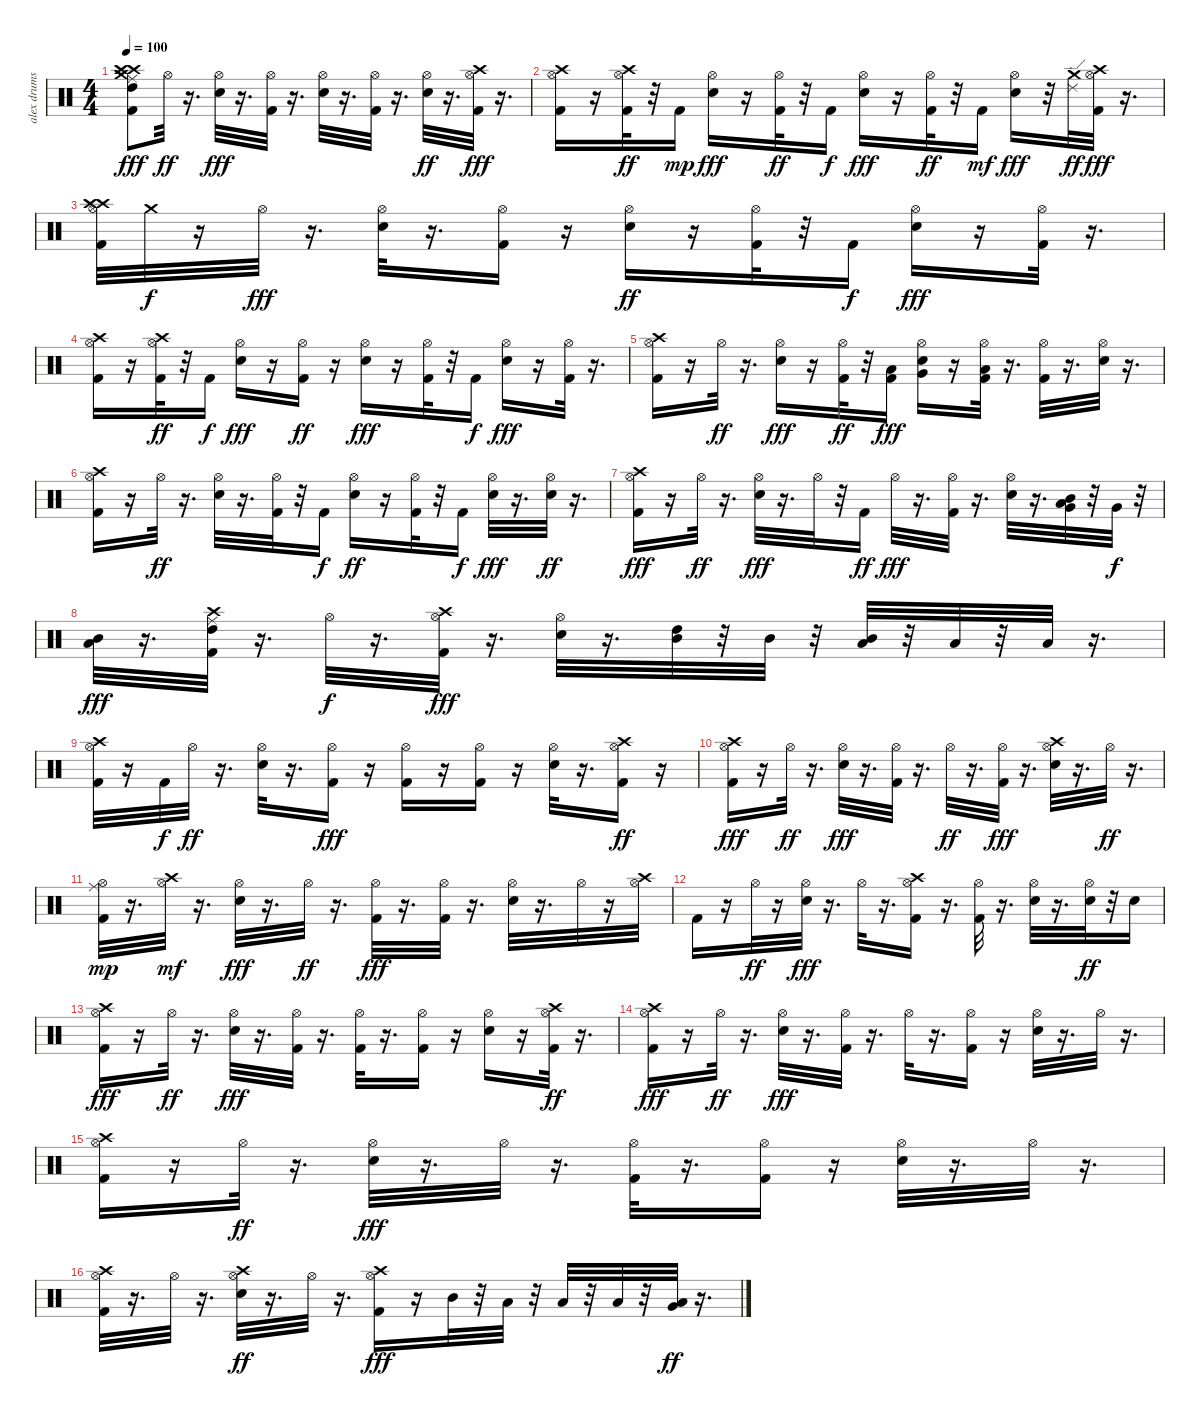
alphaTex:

\track ("alex drums" "alex drums") {instrument percussion}
\staff {score}
\articulation defaults
\ts (4 4)
\tempo 100
\clef neutral
\ks c
("Crash high (hit)" "Crash medium (hit)" "High Tom (hit)" "Kick (hit) 2" "Ride (middle)" "Crash high (hit)").8{dy fff} "Hi-Hat (open)".32{dy ff} r.16{d} ("Hi-Hat (open)" "Electric Snare (hit)").32{dy fff} r.16{d} ("Kick (hit) 2" "Hi-Hat (open)").32 r.16{d} ("Electric Snare (hit)" "Hi-Hat (open)").32 r.16{d} ("Kick (hit) 2" "Hi-Hat (open)").32 r.16{d} ("Hi-Hat (open)" "Electric Snare (hit)").32{dy ff} r.16{d} ("Hi-Hat (open)" "Crash high (hit)" "Kick (hit) 2").32{dy fff} r.16{d} |
("Hi-Hat (open)" "Crash high (hit)" "Kick (hit) 2").16 r.16 ("Hi-Hat (open)" "Crash high (hit)" "Kick (hit) 2").32{dy ff} r.32 "Kick (hit) 2".16{dy mp} ("Hi-Hat (open)" "Electric Snare (hit)").16{dy fff} r.16 ("Kick (hit) 2" "Hi-Hat (open)").32{dy ff} r.32 "Kick (hit) 2".16{dy f} ("Hi-Hat (open)" "Electric Snare (hit)").16{dy fff} r.16 ("Hi-Hat (open)" "Kick (hit) 2").32{dy ff} r.32 "Kick (hit) 2".16{dy mf} ("Electric Snare (hit)" "Hi-Hat (open)").16{dy fff} r.32 ("Crash medium (hit)" "Ride (edge) 2").32{dy ff} ("Hi-Hat (open)" "Crash high (hit)" "Kick (hit) 2").32{dy fff} r.16{d} |
("Crash high (hit)" "Hi-Hat (open)" "Kick (hit) 2" "Crash high (hit)").32 "Crash medium (hit)".32{dy f} r.16 "Hi-Hat (open)".32{dy fff} r.16{d} ("Hi-Hat (open)" "Electric Snare (hit)").32 r.16{d} ("Hi-Hat (open)" "Kick (hit) 2").16 r.16 ("Hi-Hat (open)" "Electric Snare (hit)").16{dy ff} r.16 ("Hi-Hat (open)" "Kick (hit) 2").32 r.32 "Kick (hit) 2".16{dy f} ("Hi-Hat (open)" "Electric Snare (hit)").16{dy fff} r.16 ("Hi-Hat (open)" "Kick (hit) 2").32 r.16{d} |
("Kick (hit) 2" "Hi-Hat (open)" "Crash high (hit)").16 r.16 ("Crash high (hit)" "Kick (hit) 2" "Hi-Hat (open)").32{dy ff} r.32 "Kick (hit) 2".16{dy f} ("Electric Snare (hit)" "Hi-Hat (open)").16{dy fff} r.16 ("Hi-Hat (open)" "Kick (hit) 2").16{dy ff} r.16 ("Hi-Hat (open)" "Electric Snare (hit)").16{dy fff} r.16 ("Hi-Hat (open)" "Kick (hit) 2").32 r.32 "Kick (hit) 2".16{dy f} ("Hi-Hat (open)" "Electric Snare (hit)").16{dy fff} r.16 ("Hi-Hat (open)" "Kick (hit) 2").32 r.16{d} |
("Hi-Hat (open)" "Crash high (hit)" "Kick (hit) 2").16 r.16 "Hi-Hat (open)".32{dy ff} r.16{d} ("Hi-Hat (open)" "Electric Snare (hit)").16{dy fff} r.16 ("Hi-Hat (open)" "Kick (hit) 2").32{dy ff} r.32 ("Kick (hit) 2" "Low Tom (hit)").16{dy fff} ("Very Low Tom (hit)" "Hi-Hat (open)" "Electric Snare (hit)").16 r.16 ("Low Floor Tom (hit)" "Hi-Hat (open)" "Kick (hit) 2").32 r.16{d} ("Kick (hit) 2" "Hi-Hat (open)").32 r.16{d} ("Hi-Hat (open)" "Electric Snare (hit)").32 r.16{d} |
("Hi-Hat (open)" "Crash high (hit)" "Kick (hit) 2").16 r.16 "Hi-Hat (open)".32{dy ff} r.16{d} ("Hi-Hat (open)" "Electric Snare (hit)").32 r.16{d} ("Hi-Hat (open)" "Kick (hit) 2").32 r.32 "Kick (hit) 2".16{dy f} ("Hi-Hat (open)" "Electric Snare (hit)").16{dy ff} r.16 ("Hi-Hat (open)" "Kick (hit) 2").32 r.32 "Kick (hit) 2".16{dy f} ("Hi-Hat (open)" "Electric Snare (hit)").32{dy fff} r.16{d} ("Hi-Hat (open)" "Electric Snare (hit)").32{dy ff} r.16{d} |
("Hi-Hat (open)" "Crash high (hit)" "Kick (hit) 2").16{dy fff} r.16 "Hi-Hat (open)".32{dy ff} r.16{d} ("Hi-Hat (open)" "Electric Snare (hit)").32{dy fff} r.16{d} "Hi-Hat (open)".32 r.32 "Kick (hit) 2".16{dy ff} "Hi-Hat (open)".32{dy fff} r.16{d} ("Kick (hit) 2" "Hi-Hat (open)").32 r.16{d} ("Hi-Hat (open)" "Electric Snare (hit)").32 r.16{d} ("Low Tom (hit)" "Very Low Tom (hit)" "Mid Tom (hit)").32 r.32 "Very Low Tom (hit)".32{dy f} r.32 |
("Mid Tom (hit)" "Low Floor Tom (hit)").32{dy fff} r.16{d} ("High Tom (hit)" "Ride (middle)" "Crash high (hit)" "Kick (hit) 2").32 r.16{d} "Hi-Hat (open)".32{dy f} r.16{d} ("Hi-Hat (open)" "Crash high (hit)" "Kick (hit) 2").32{dy fff} r.16{d} ("Electric Snare (hit)" "Hi-Hat (open)").32 r.16{d} ("Mid Tom (hit)" "High Tom (hit)").32 r.32 "Mid Tom (hit)".32 r.32 ("Mid Tom (hit)" "Low Tom (hit)").32 r.32 "Low Floor Tom (hit)".32 r.32 "Low Floor Tom (hit)".32 r.16{d} |
("Kick (hit) 2" "Crash high (hit)" "Hi-Hat (open)").32 r.16 "Kick (hit) 2".32{dy f} "Hi-Hat (open)".32{dy ff} r.16{d} ("Electric Snare (hit)" "Hi-Hat (open)").32 r.16{d} ("Kick (hit) 2" "Hi-Hat (open)").16{dy fff} r.16 ("Kick (hit) 2" "Hi-Hat (open)").16 r.16 ("Kick (hit) 2" "Hi-Hat (open)").16 r.16 ("Electric Snare (hit)" "Hi-Hat (open)").32 r.16{d} ("Kick (hit) 2" "Crash high (hit)" "Hi-Hat (open)").16{dy ff} r.16 |
("Kick (hit) 2" "Hi-Hat (open)" "Crash high (hit)").16{dy fff} r.16 "Hi-Hat (open)".32{dy ff} r.16{d} ("Electric Snare (hit)" "Hi-Hat (open)").32{dy fff} r.16{d} ("Kick (hit) 2" "Hi-Hat (open)").32 r.16{d} "Hi-Hat (open)".32{dy ff} r.16{d} ("Hi-Hat (open)" "Kick (hit) 2").32{dy fff} r.16{d} ("Hi-Hat (open)" "Crash high (hit)" "Electric Snare (hit)").32 r.16{d} "Hi-Hat (open)".32{dy ff} r.16{d} |
("Hi-Hat (open)" "Kick (hit) 2" "Ride (middle)").32{dy mp} r.16{d} ("Crash high (hit)" "Hi-Hat (open)").32{dy mf} r.16{d} ("Electric Snare (hit)" "Hi-Hat (open)").32{dy fff} r.16{d} "Hi-Hat (open)".32{dy ff} r.16{d} ("Hi-Hat (open)" "Kick (hit) 2").32{dy fff} r.16{d} ("Kick (hit) 2" "Hi-Hat (open)").32 r.16{d} ("Electric Snare (hit)" "Hi-Hat (open)").32 r.16{d} "Hi-Hat (open)".32 r.16 ("Crash high (hit)" "Hi-Hat (open)").32 |
"Kick (hit) 2".16 r.16 "Hi-Hat (open)".32{dy ff} r.16 ("Hi-Hat (open)" "Electric Snare (hit)").32{dy fff} r.16{d} "Hi-Hat (open)".32 r.16{d} ("Hi-Hat (open)" "Crash high (hit)" "Kick (hit) 2").16 r.16{d} ("Hi-Hat (open)" "Kick (hit) 2").32 r.16{d} ("Electric Snare (hit)" "Hi-Hat (open)").32 r.16{d} ("Electric Snare (hit)" "Hi-Hat (open)").32{dy ff} r.32 "Electric Snare (hit)".16 |
("Kick (hit) 2" "Crash high (hit)" "Hi-Hat (open)").16{dy fff} r.16 "Hi-Hat (open)".32{dy ff} r.16{d} ("Electric Snare (hit)" "Hi-Hat (open)").32{dy fff} r.16{d} ("Kick (hit) 2" "Hi-Hat (open)").32 r.16{d} ("Kick (hit) 2" "Hi-Hat (open)").32 r.16{d} ("Kick (hit) 2" "Hi-Hat (open)").16 r.16 ("Electric Snare (hit)" "Hi-Hat (open)").16 r.16 ("Kick (hit) 2" "Hi-Hat (open)" "Crash high (hit)").32{dy ff} r.16{d} |
("Kick (hit) 2" "Hi-Hat (open)" "Crash high (hit)").16{dy fff} r.16 "Hi-Hat (open)".32{dy ff} r.16{d} ("Electric Snare (hit)" "Hi-Hat (open)").32{dy fff} r.16{d} ("Hi-Hat (open)" "Kick (hit) 2").32 r.16{d} "Hi-Hat (open)".32 r.16{d} ("Hi-Hat (open)" "Kick (hit) 2").16 r.16 ("Electric Snare (hit)" "Hi-Hat (open)").32 r.16{d} "Hi-Hat (open)".32 r.16{d} |
("Kick (hit) 2" "Crash high (hit)" "Hi-Hat (open)").16 r.16 "Hi-Hat (open)".32{dy ff} r.16{d} ("Electric Snare (hit)" "Hi-Hat (open)").32{dy fff} r.16{d} "Hi-Hat (open)".32 r.16{d} ("Hi-Hat (open)" "Kick (hit) 2").32 r.16{d} ("Kick (hit) 2" "Hi-Hat (open)").16 r.16 ("Electric Snare (hit)" "Hi-Hat (open)").32 r.16{d} "Hi-Hat (open)".32 r.16{d} |
("Hi-Hat (open)" "Kick (hit) 2" "Crash high (hit)").32 r.16{d} "Hi-Hat (open)".32 r.16{d} ("Electric Snare (hit)" "Hi-Hat (open)" "Crash high (hit)").32{dy ff} r.16{d} "Hi-Hat (open)".32 r.16{d} ("Kick (hit) 2" "Hi-Hat (open)" "Crash high (hit)").16{dy fff} r.16 "Mid Tom (hit)".32 r.32 "Low Tom (hit)".32 r.32 "Low Tom (hit)".32 r.32 "Low Floor Tom (hit)".32 r.32 ("Low Floor Tom (hit)" "Very Low Tom (hit)").32{dy ff} r.16{d}
